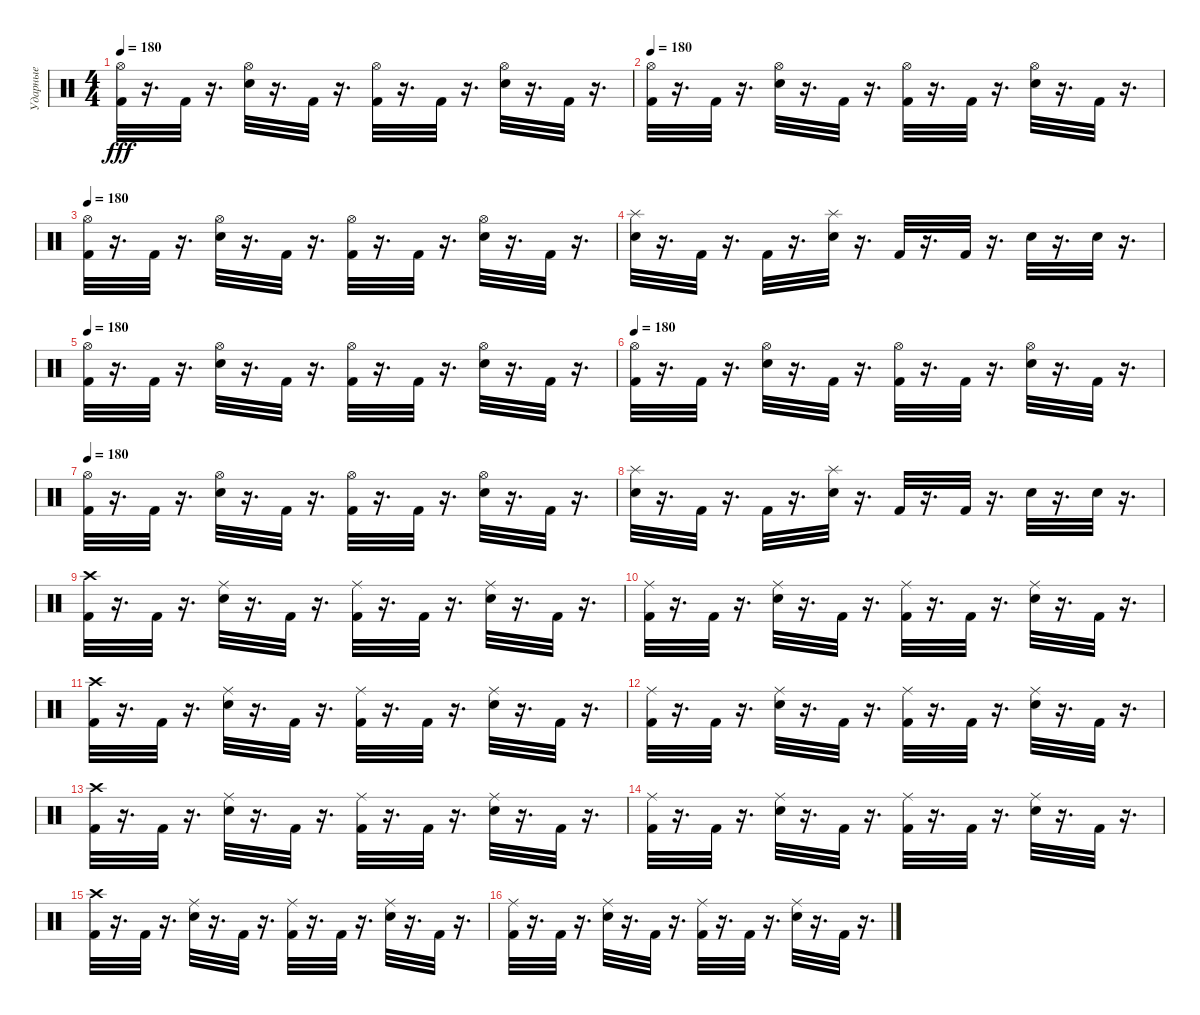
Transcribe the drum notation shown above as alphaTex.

\track ("Ударные" "Ударные") {instrument percussion}
\staff {score}
\articulation defaults
\ts (4 4)
\tempo 180
\clef neutral
\ks c
("Kick (hit) 2" "Hi-Hat (open)").32{dy fff} r.16{d} "Kick (hit) 2".32 r.16{d} ("Snare (hit) 2" "Hi-Hat (open)").32 r.16{d} "Kick (hit) 2".32 r.16{d} ("Kick (hit) 2" "Hi-Hat (open)").32 r.16{d} "Kick (hit) 2".32 r.16{d} ("Hi-Hat (open)" "Snare (hit) 2").32 r.16{d} "Kick (hit) 2".32 r.16{d} |
\tempo 180
("Hi-Hat (open)" "Kick (hit) 2").32 r.16{d} "Kick (hit) 2".32 r.16{d} ("Hi-Hat (open)" "Snare (hit) 2").32 r.16{d} "Kick (hit) 2".32 r.16{d} ("Kick (hit) 2" "Hi-Hat (open)").32 r.16{d} "Kick (hit) 2".32 r.16{d} ("Hi-Hat (open)" "Snare (hit) 2").32 r.16{d} "Kick (hit) 2".32 r.16{d} |
\tempo 180
("Kick (hit) 2" "Hi-Hat (open)").32 r.16{d} "Kick (hit) 2".32 r.16{d} ("Hi-Hat (open)" "Snare (hit) 2").32 r.16{d} "Kick (hit) 2".32 r.16{d} ("Kick (hit) 2" "Hi-Hat (open)").32 r.16{d} "Kick (hit) 2".32 r.16{d} ("Snare (hit) 2" "Hi-Hat (open)").32 r.16{d} "Kick (hit) 2".32 r.16{d} |
("Splash (hit)" "Electric Snare (hit)").32 r.16{d} "Kick (hit) 2".32 r.16{d} "Kick (hit) 2".32 r.16{d} ("Splash (hit)" "Electric Snare (hit)").32 r.16{d} "Kick (hit) 2".32 r.16{d} "Kick (hit) 2".32 r.16{d} "Electric Snare (hit)".32 r.16{d} "Electric Snare (hit)".32 r.16{d} |
\tempo 180
("Hi-Hat (open)" "Kick (hit) 2").32 r.16{d} "Kick (hit) 2".32 r.16{d} ("Hi-Hat (open)" "Snare (hit) 2").32 r.16{d} "Kick (hit) 2".32 r.16{d} ("Kick (hit) 2" "Hi-Hat (open)").32 r.16{d} "Kick (hit) 2".32 r.16{d} ("Snare (hit) 2" "Hi-Hat (open)").32 r.16{d} "Kick (hit) 2".32 r.16{d} |
\tempo 180
("Hi-Hat (open)" "Kick (hit) 2").32 r.16{d} "Kick (hit) 2".32 r.16{d} ("Snare (hit) 2" "Hi-Hat (open)").32 r.16{d} "Kick (hit) 2".32 r.16{d} ("Hi-Hat (open)" "Kick (hit) 2").32 r.16{d} "Kick (hit) 2".32 r.16{d} ("Hi-Hat (open)" "Snare (hit) 2").32 r.16{d} "Kick (hit) 2".32 r.16{d} |
\tempo 180
("Hi-Hat (open)" "Kick (hit) 2").32 r.16{d} "Kick (hit) 2".32 r.16{d} ("Snare (hit) 2" "Hi-Hat (open)").32 r.16{d} "Kick (hit) 2".32 r.16{d} ("Kick (hit) 2" "Hi-Hat (open)").32 r.16{d} "Kick (hit) 2".32 r.16{d} ("Hi-Hat (open)" "Snare (hit) 2").32 r.16{d} "Kick (hit) 2".32 r.16{d} |
("Splash (hit)" "Electric Snare (hit)").32 r.16{d} "Kick (hit) 2".32 r.16{d} "Kick (hit) 2".32 r.16{d} ("Splash (hit)" "Electric Snare (hit)").32 r.16{d} "Kick (hit) 2".32 r.16{d} "Kick (hit) 2".32 r.16{d} "Electric Snare (hit)".32 r.16{d} "Electric Snare (hit)".32 r.16{d} |
("Kick (hit) 2" "Crash high (hit)").32 r.16{d} "Kick (hit) 2".32 r.16{d} ("Ride (middle)" "Snare (hit) 2").32 r.16{d} "Kick (hit) 2".32 r.16{d} ("Kick (hit) 2" "Ride (middle)").32 r.16{d} "Kick (hit) 2".32 r.16{d} ("Snare (hit) 2" "Ride (middle)").32 r.16{d} "Kick (hit) 2".32 r.16{d} |
("Kick (hit) 2" "Ride (middle)").32 r.16{d} "Kick (hit) 2".32 r.16{d} ("Snare (hit) 2" "Ride (middle)").32 r.16{d} "Kick (hit) 2".32 r.16{d} ("Ride (middle)" "Kick (hit) 2").32 r.16{d} "Kick (hit) 2".32 r.16{d} ("Ride (middle)" "Snare (hit) 2").32 r.16{d} "Kick (hit) 2".32 r.16{d} |
("Kick (hit) 2" "Crash high (hit)").32 r.16{d} "Kick (hit) 2".32 r.16{d} ("Ride (middle)" "Snare (hit) 2").32 r.16{d} "Kick (hit) 2".32 r.16{d} ("Kick (hit) 2" "Ride (middle)").32 r.16{d} "Kick (hit) 2".32 r.16{d} ("Ride (middle)" "Snare (hit) 2").32 r.16{d} "Kick (hit) 2".32 r.16{d} |
("Ride (middle)" "Kick (hit) 2").32 r.16{d} "Kick (hit) 2".32 r.16{d} ("Snare (hit) 2" "Ride (middle)").32 r.16{d} "Kick (hit) 2".32 r.16{d} ("Ride (middle)" "Kick (hit) 2").32 r.16{d} "Kick (hit) 2".32 r.16{d} ("Snare (hit) 2" "Ride (middle)").32 r.16{d} "Kick (hit) 2".32 r.16{d} |
("Kick (hit) 2" "Crash high (hit)").32 r.16{d} "Kick (hit) 2".32 r.16{d} ("Ride (middle)" "Snare (hit) 2").32 r.16{d} "Kick (hit) 2".32 r.16{d} ("Kick (hit) 2" "Ride (middle)").32 r.16{d} "Kick (hit) 2".32 r.16{d} ("Snare (hit) 2" "Ride (middle)").32 r.16{d} "Kick (hit) 2".32 r.16{d} |
("Ride (middle)" "Kick (hit) 2").32 r.16{d} "Kick (hit) 2".32 r.16{d} ("Ride (middle)" "Snare (hit) 2").32 r.16{d} "Kick (hit) 2".32 r.16{d} ("Kick (hit) 2" "Ride (middle)").32 r.16{d} "Kick (hit) 2".32 r.16{d} ("Snare (hit) 2" "Ride (middle)").32 r.16{d} "Kick (hit) 2".32 r.16{d} |
("Crash high (hit)" "Kick (hit) 2").32 r.16{d} "Kick (hit) 2".32 r.16{d} ("Ride (middle)" "Snare (hit) 2").32 r.16{d} "Kick (hit) 2".32 r.16{d} ("Ride (middle)" "Kick (hit) 2").32 r.16{d} "Kick (hit) 2".32 r.16{d} ("Ride (middle)" "Snare (hit) 2").32 r.16{d} "Kick (hit) 2".32 r.16{d} |
("Ride (middle)" "Kick (hit) 2").32 r.16{d} "Kick (hit) 2".32 r.16{d} ("Snare (hit) 2" "Ride (middle)").32 r.16{d} "Kick (hit) 2".32 r.16{d} ("Ride (middle)" "Kick (hit) 2").32 r.16{d} "Kick (hit) 2".32 r.16{d} ("Snare (hit) 2" "Ride (middle)").32 r.16{d} "Kick (hit) 2".32 r.16{d}
